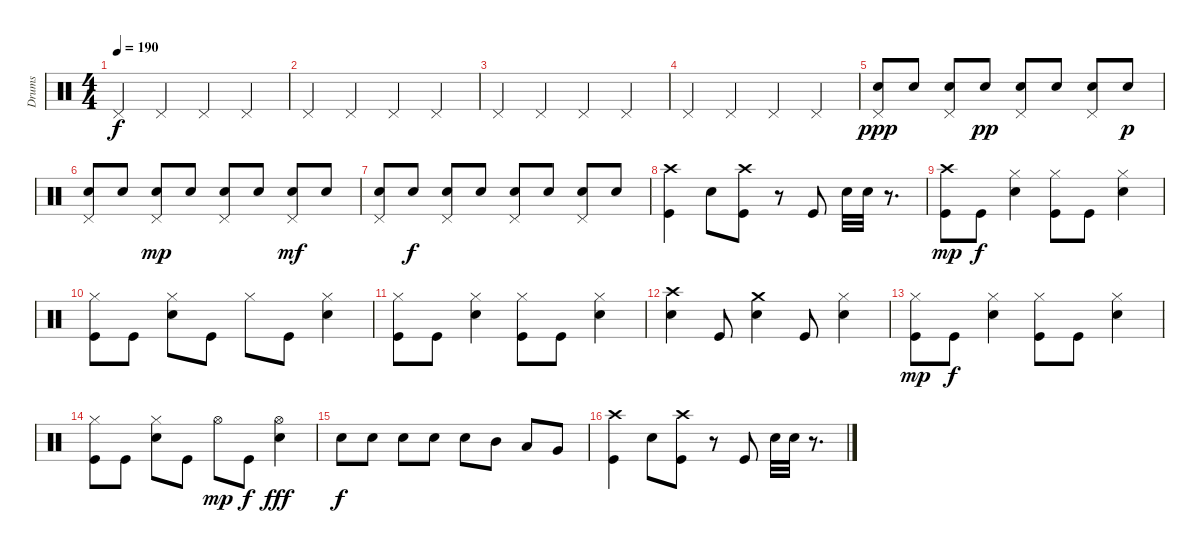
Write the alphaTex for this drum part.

\track ("Drums" "Drums") {instrument percussion}
\staff {score}
\articulation defaults
\ts (4 4)
\tempo 190
\clef neutral
\ks c "Pedal Hi-Hat (hit)".4{dy f} "Pedal Hi-Hat (hit)".4 "Pedal Hi-Hat (hit)".4 "Pedal Hi-Hat (hit)".4
|
"Pedal Hi-Hat (hit)".4 "Pedal Hi-Hat (hit)".4 "Pedal Hi-Hat (hit)".4 "Pedal Hi-Hat (hit)".4 |
"Pedal Hi-Hat (hit)".4 "Pedal Hi-Hat (hit)".4 "Pedal Hi-Hat (hit)".4 "Pedal Hi-Hat (hit)".4 |
"Pedal Hi-Hat (hit)".4 "Pedal Hi-Hat (hit)".4 "Pedal Hi-Hat (hit)".4 "Pedal Hi-Hat (hit)".4 |
("Pedal Hi-Hat (hit)" "Snare (hit) 2").8{dy ppp} "Snare (hit) 2".8 ("Pedal Hi-Hat (hit)" "Snare (hit) 2").8 "Snare (hit) 2".8{dy pp} ("Pedal Hi-Hat (hit)" "Snare (hit) 2").8 "Snare (hit) 2".8 ("Pedal Hi-Hat (hit)" "Snare (hit) 2").8 "Snare (hit) 2".8{dy p} |
("Pedal Hi-Hat (hit)" "Snare (hit) 2").8 "Snare (hit) 2".8 ("Pedal Hi-Hat (hit)" "Snare (hit) 2").8{dy mp} "Snare (hit) 2".8 ("Pedal Hi-Hat (hit)" "Snare (hit) 2").8 "Snare (hit) 2".8 ("Pedal Hi-Hat (hit)" "Snare (hit) 2").8{dy mf} "Snare (hit) 2".8 |
("Pedal Hi-Hat (hit)" "Snare (hit) 2").8 "Snare (hit) 2".8{dy f} ("Pedal Hi-Hat (hit)" "Snare (hit) 2").8 "Snare (hit) 2".8 ("Pedal Hi-Hat (hit)" "Snare (hit) 2").8 "Snare (hit) 2".8 ("Pedal Hi-Hat (hit)" "Snare (hit) 2").8 "Snare (hit) 2".8 |
("Crash high (hit)" "Kick (hit)").4 "Snare (hit) 2".8 ("Crash high (hit)" "Kick (hit)").8 r.8 "Kick (hit)".8 "Snare (hit) 2".32 "Snare (hit) 2".32 r.8{d} |
("Crash high (hit)" "Kick (hit)").8{dy mp} "Kick (hit)".8{dy f} ("Hi-Hat (closed)" "Snare (hit) 2").4 ("Hi-Hat (closed)" "Kick (hit)").8 "Kick (hit)".8 ("Hi-Hat (closed)" "Snare (hit) 2").4 |
("Hi-Hat (closed)" "Kick (hit)").8 "Kick (hit)".8 ("Hi-Hat (closed)" "Snare (hit) 2").8 "Kick (hit)".8 "Hi-Hat (closed)".8 "Kick (hit)".8 ("Hi-Hat (closed)" "Snare (hit) 2").4 |
("Hi-Hat (closed)" "Kick (hit)").8 "Kick (hit)".8 ("Hi-Hat (closed)" "Snare (hit) 2").4 ("Hi-Hat (closed)" "Kick (hit)").8 "Kick (hit)".8 ("Hi-Hat (closed)" "Snare (hit) 2").4 |
("Crash high (hit)" "Snare (hit) 2").4 "Kick (hit)".8 ("Crash medium (hit)" "Snare (hit) 2").4 "Kick (hit)".8 ("Hi-Hat (closed)" "Snare (hit) 2").4 |
("Hi-Hat (closed)" "Kick (hit)").8{dy mp} "Kick (hit)".8{dy f} ("Hi-Hat (closed)" "Snare (hit) 2").4 ("Hi-Hat (closed)" "Kick (hit)").8 "Kick (hit)".8 ("Hi-Hat (closed)" "Snare (hit) 2").4 |
("Hi-Hat (closed)" "Kick (hit)").8 "Kick (hit)".8 ("Hi-Hat (closed)" "Snare (hit) 2").8 "Kick (hit)".8 "Hi-Hat (open)".8{dy mp} "Kick (hit)".8{dy f} ("Hi-Hat (open)" "Snare (hit) 2").4{dy fff} |
"Snare (hit) 2".8{dy f} "Snare (hit) 2".8 "Snare (hit) 2".8 "Snare (hit) 2".8 "Snare (hit) 2".8 "Mid Tom (hit)".8 "Low Tom (hit)".8 "Very Low Tom (hit)".8 |
("Crash high (hit)" "Kick (hit)").4 "Snare (hit) 2".8 ("Crash high (hit)" "Kick (hit)").8 r.8 "Kick (hit)".8 "Snare (hit) 2".32 "Snare (hit) 2".32 r.8{d}
